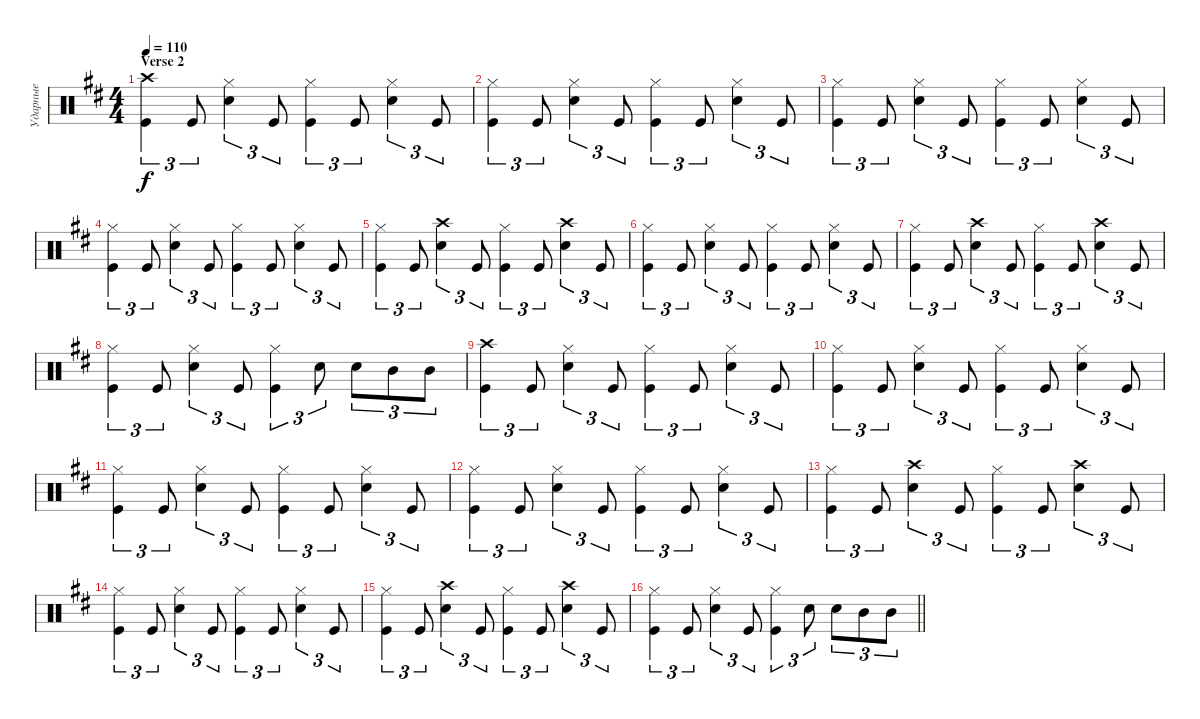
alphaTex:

\track ("Ударные" "Ударные") {instrument percussion}
\staff {score}
\articulation defaults
\ts (4 4)
\section ("" "Verse 2")
\tempo 110
\clef neutral
\ks bminor
("Kick (hit)" "Crash high (hit)").4{tu (3 2) dy f} "Kick (hit)".8{tu (3 2)} ("Snare (hit) 2" "Hi-Hat (closed)").4{tu (3 2)} "Kick (hit)".8{tu (3 2)} ("Kick (hit)" "Hi-Hat (closed)").4{tu (3 2)} "Kick (hit)".8{tu (3 2)} ("Snare (hit) 2" "Hi-Hat (closed)").4{tu (3 2)} "Kick (hit)".8{tu (3 2)} |
("Kick (hit)" "Hi-Hat (closed)").4{tu (3 2)} "Kick (hit)".8{tu (3 2)} ("Snare (hit) 2" "Hi-Hat (closed)").4{tu (3 2)} "Kick (hit)".8{tu (3 2)} ("Kick (hit)" "Hi-Hat (closed)").4{tu (3 2)} "Kick (hit)".8{tu (3 2)} ("Snare (hit) 2" "Hi-Hat (closed)").4{tu (3 2)} "Kick (hit)".8{tu (3 2)} |
("Kick (hit)" "Hi-Hat (closed)").4{tu (3 2)} "Kick (hit)".8{tu (3 2)} ("Snare (hit) 2" "Hi-Hat (closed)").4{tu (3 2)} "Kick (hit)".8{tu (3 2)} ("Kick (hit)" "Hi-Hat (closed)").4{tu (3 2)} "Kick (hit)".8{tu (3 2)} ("Snare (hit) 2" "Hi-Hat (closed)").4{tu (3 2)} "Kick (hit)".8{tu (3 2)} |
("Kick (hit)" "Hi-Hat (closed)").4{tu (3 2)} "Kick (hit)".8{tu (3 2)} ("Snare (hit) 2" "Hi-Hat (closed)").4{tu (3 2)} "Kick (hit)".8{tu (3 2)} ("Kick (hit)" "Hi-Hat (closed)").4{tu (3 2)} "Kick (hit)".8{tu (3 2)} ("Snare (hit) 2" "Hi-Hat (closed)").4{tu (3 2)} "Kick (hit)".8{tu (3 2)} |
("Kick (hit)" "Hi-Hat (closed)").4{tu (3 2)} "Kick (hit)".8{tu (3 2)} ("Snare (hit) 2" "Crash high (hit)").4{tu (3 2)} "Kick (hit)".8{tu (3 2)} ("Kick (hit)" "Hi-Hat (closed)").4{tu (3 2)} "Kick (hit)".8{tu (3 2)} ("Snare (hit) 2" "Crash high (hit)").4{tu (3 2)} "Kick (hit)".8{tu (3 2)} |
("Kick (hit)" "Hi-Hat (closed)").4{tu (3 2)} "Kick (hit)".8{tu (3 2)} ("Snare (hit) 2" "Hi-Hat (closed)").4{tu (3 2)} "Kick (hit)".8{tu (3 2)} ("Kick (hit)" "Hi-Hat (closed)").4{tu (3 2)} "Kick (hit)".8{tu (3 2)} ("Snare (hit) 2" "Hi-Hat (closed)").4{tu (3 2)} "Kick (hit)".8{tu (3 2)} |
("Kick (hit)" "Hi-Hat (closed)").4{tu (3 2)} "Kick (hit)".8{tu (3 2)} ("Snare (hit) 2" "Crash high (hit)").4{tu (3 2)} "Kick (hit)".8{tu (3 2)} ("Kick (hit)" "Hi-Hat (closed)").4{tu (3 2)} "Kick (hit)".8{tu (3 2)} ("Snare (hit) 2" "Crash high (hit)").4{tu (3 2)} "Kick (hit)".8{tu (3 2)} |
("Kick (hit)" "Hi-Hat (closed)").4{tu (3 2)} "Kick (hit)".8{tu (3 2)} ("Snare (hit) 2" "Hi-Hat (closed)").4{tu (3 2)} "Kick (hit)".8{tu (3 2)} ("Kick (hit)" "Hi-Hat (closed)").4{tu (3 2)} "Snare (hit) 2".8{tu (3 2)} "Snare (hit) 2".8{tu (3 2)} "Mid Tom (hit)".8{tu (3 2)} "Mid Tom (hit)".8{tu (3 2)} |
("Kick (hit)" "Crash high (hit)").4{tu (3 2)} "Kick (hit)".8{tu (3 2)} ("Snare (hit) 2" "Hi-Hat (closed)").4{tu (3 2)} "Kick (hit)".8{tu (3 2)} ("Kick (hit)" "Hi-Hat (closed)").4{tu (3 2)} "Kick (hit)".8{tu (3 2)} ("Snare (hit) 2" "Hi-Hat (closed)").4{tu (3 2)} "Kick (hit)".8{tu (3 2)} |
("Kick (hit)" "Hi-Hat (closed)").4{tu (3 2)} "Kick (hit)".8{tu (3 2)} ("Snare (hit) 2" "Hi-Hat (closed)").4{tu (3 2)} "Kick (hit)".8{tu (3 2)} ("Kick (hit)" "Hi-Hat (closed)").4{tu (3 2)} "Kick (hit)".8{tu (3 2)} ("Snare (hit) 2" "Hi-Hat (closed)").4{tu (3 2)} "Kick (hit)".8{tu (3 2)} |
("Kick (hit)" "Hi-Hat (closed)").4{tu (3 2)} "Kick (hit)".8{tu (3 2)} ("Snare (hit) 2" "Hi-Hat (closed)").4{tu (3 2)} "Kick (hit)".8{tu (3 2)} ("Kick (hit)" "Hi-Hat (closed)").4{tu (3 2)} "Kick (hit)".8{tu (3 2)} ("Snare (hit) 2" "Hi-Hat (closed)").4{tu (3 2)} "Kick (hit)".8{tu (3 2)} |
("Kick (hit)" "Hi-Hat (closed)").4{tu (3 2)} "Kick (hit)".8{tu (3 2)} ("Snare (hit) 2" "Hi-Hat (closed)").4{tu (3 2)} "Kick (hit)".8{tu (3 2)} ("Kick (hit)" "Hi-Hat (closed)").4{tu (3 2)} "Kick (hit)".8{tu (3 2)} ("Snare (hit) 2" "Hi-Hat (closed)").4{tu (3 2)} "Kick (hit)".8{tu (3 2)} |
("Kick (hit)" "Hi-Hat (closed)").4{tu (3 2)} "Kick (hit)".8{tu (3 2)} ("Snare (hit) 2" "Crash high (hit)").4{tu (3 2)} "Kick (hit)".8{tu (3 2)} ("Kick (hit)" "Hi-Hat (closed)").4{tu (3 2)} "Kick (hit)".8{tu (3 2)} ("Snare (hit) 2" "Crash high (hit)").4{tu (3 2)} "Kick (hit)".8{tu (3 2)} |
("Kick (hit)" "Hi-Hat (closed)").4{tu (3 2)} "Kick (hit)".8{tu (3 2)} ("Snare (hit) 2" "Hi-Hat (closed)").4{tu (3 2)} "Kick (hit)".8{tu (3 2)} ("Kick (hit)" "Hi-Hat (closed)").4{tu (3 2)} "Kick (hit)".8{tu (3 2)} ("Snare (hit) 2" "Hi-Hat (closed)").4{tu (3 2)} "Kick (hit)".8{tu (3 2)} |
("Kick (hit)" "Hi-Hat (closed)").4{tu (3 2)} "Kick (hit)".8{tu (3 2)} ("Snare (hit) 2" "Crash high (hit)").4{tu (3 2)} "Kick (hit)".8{tu (3 2)} ("Kick (hit)" "Hi-Hat (closed)").4{tu (3 2)} "Kick (hit)".8{tu (3 2)} ("Snare (hit) 2" "Crash high (hit)").4{tu (3 2)} "Kick (hit)".8{tu (3 2)} |
\barLineRight lightlight
("Kick (hit)" "Hi-Hat (closed)").4{tu (3 2)} "Kick (hit)".8{tu (3 2)} ("Snare (hit) 2" "Hi-Hat (closed)").4{tu (3 2)} "Kick (hit)".8{tu (3 2)} ("Kick (hit)" "Hi-Hat (closed)").4{tu (3 2)} "Snare (hit) 2".8{tu (3 2)} "Snare (hit) 2".8{tu (3 2)} "Mid Tom (hit)".8{tu (3 2)} "Mid Tom (hit)".8{tu (3 2)}
